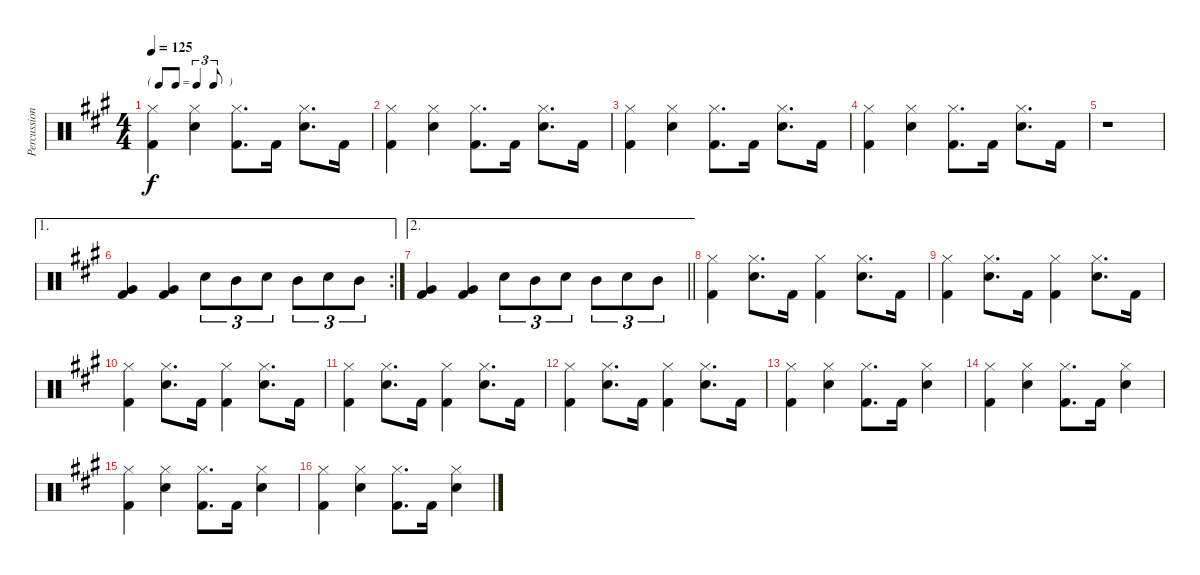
\track ("Percussion" "Percussion") {instrument percussion}
\staff {score}
\articulation defaults
\ts (4 4)
\tf triplet8th
\tempo 125
\clef neutral
\ks a
("Hi-Hat (closed)" "Kick (hit) 2").4{dy f} ("Hi-Hat (closed)" "Snare (hit) 2").4 ("Hi-Hat (closed)" "Kick (hit) 2").8{d} "Kick (hit) 2".16 ("Hi-Hat (closed)" "Snare (hit) 2").8{d} "Kick (hit) 2".16 |
("Hi-Hat (closed)" "Kick (hit) 2").4 ("Hi-Hat (closed)" "Snare (hit) 2").4 ("Hi-Hat (closed)" "Kick (hit) 2").8{d} "Kick (hit) 2".16 ("Hi-Hat (closed)" "Snare (hit) 2").8{d} "Kick (hit) 2".16 |
("Hi-Hat (closed)" "Kick (hit) 2").4 ("Hi-Hat (closed)" "Snare (hit) 2").4 ("Hi-Hat (closed)" "Kick (hit) 2").8{d} "Kick (hit) 2".16 ("Hi-Hat (closed)" "Snare (hit) 2").8{d} "Kick (hit) 2".16 |
("Hi-Hat (closed)" "Kick (hit) 2").4 ("Hi-Hat (closed)" "Snare (hit) 2").4 ("Hi-Hat (closed)" "Kick (hit) 2").8{d} "Kick (hit) 2".16 ("Hi-Hat (closed)" "Snare (hit) 2").8{d} "Kick (hit) 2".16 |
r.1 |
\ae 1
\rc 2
("Very Low Tom (hit)" "Kick (hit) 2").4 ("Very Low Tom (hit)" "Kick (hit) 2").4 "Snare (hit) 2".8{tu (3 2)} "Mid Tom (hit)".8{tu (3 2)} "Snare (hit) 2".8{tu (3 2)} "Mid Tom (hit)".8{tu (3 2)} "Snare (hit) 2".8{tu (3 2)} "Mid Tom (hit)".8{tu (3 2)} |
\ae 2
\barLineRight lightlight
("Very Low Tom (hit)" "Kick (hit) 2").4 ("Very Low Tom (hit)" "Kick (hit) 2").4 "Snare (hit) 2".8{tu (3 2)} "Mid Tom (hit)".8{tu (3 2)} "Snare (hit) 2".8{tu (3 2)} "Mid Tom (hit)".8{tu (3 2)} "Snare (hit) 2".8{tu (3 2)} "Mid Tom (hit)".8{tu (3 2)} |
("Hi-Hat (closed)" "Kick (hit) 2").4 ("Hi-Hat (closed)" "Snare (hit) 2").8{d} "Kick (hit) 2".16 ("Hi-Hat (closed)" "Kick (hit) 2").4 ("Hi-Hat (closed)" "Snare (hit) 2").8{d} "Kick (hit) 2".16 |
("Hi-Hat (closed)" "Kick (hit) 2").4 ("Hi-Hat (closed)" "Snare (hit) 2").8{d} "Kick (hit) 2".16 ("Hi-Hat (closed)" "Kick (hit) 2").4 ("Hi-Hat (closed)" "Snare (hit) 2").8{d} "Kick (hit) 2".16 |
("Hi-Hat (closed)" "Kick (hit) 2").4 ("Hi-Hat (closed)" "Snare (hit) 2").8{d} "Kick (hit) 2".16 ("Hi-Hat (closed)" "Kick (hit) 2").4 ("Hi-Hat (closed)" "Snare (hit) 2").8{d} "Kick (hit) 2".16 |
("Hi-Hat (closed)" "Kick (hit) 2").4 ("Hi-Hat (closed)" "Snare (hit) 2").8{d} "Kick (hit) 2".16 ("Hi-Hat (closed)" "Kick (hit) 2").4 ("Hi-Hat (closed)" "Snare (hit) 2").8{d} "Kick (hit) 2".16 |
("Hi-Hat (closed)" "Kick (hit) 2").4 ("Hi-Hat (closed)" "Snare (hit) 2").8{d} "Kick (hit) 2".16 ("Hi-Hat (closed)" "Kick (hit) 2").4 ("Hi-Hat (closed)" "Snare (hit) 2").8{d} "Kick (hit) 2".16 |
("Hi-Hat (closed)" "Kick (hit) 2").4 ("Hi-Hat (closed)" "Snare (hit) 2").4 ("Hi-Hat (closed)" "Kick (hit) 2").8{d} "Kick (hit) 2".16 ("Hi-Hat (closed)" "Snare (hit) 2").4 |
("Hi-Hat (closed)" "Kick (hit) 2").4 ("Hi-Hat (closed)" "Snare (hit) 2").4 ("Hi-Hat (closed)" "Kick (hit) 2").8{d} "Kick (hit) 2".16 ("Hi-Hat (closed)" "Snare (hit) 2").4 |
("Hi-Hat (closed)" "Kick (hit) 2").4 ("Hi-Hat (closed)" "Snare (hit) 2").4 ("Hi-Hat (closed)" "Kick (hit) 2").8{d} "Kick (hit) 2".16 ("Hi-Hat (closed)" "Snare (hit) 2").4 |
("Hi-Hat (closed)" "Kick (hit) 2").4 ("Hi-Hat (closed)" "Snare (hit) 2").4 ("Hi-Hat (closed)" "Kick (hit) 2").8{d} "Kick (hit) 2".16 ("Hi-Hat (closed)" "Snare (hit) 2").4
